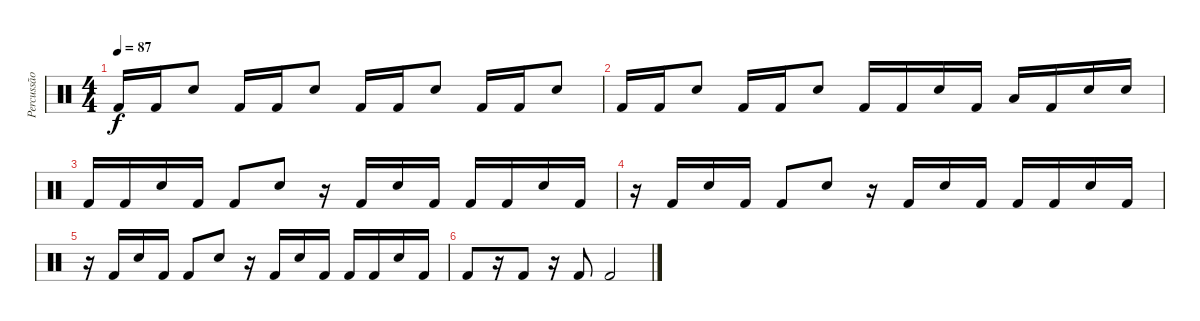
\track ("Percussão" "Percussão") {instrument percussion}
\staff {score}
\articulation defaults
\ts (4 4)
\tempo 87
\clef neutral
\ks c "Kick (hit) 2".16{dy f} "Kick (hit) 2".16 "Electric Snare (hit)".8 "Kick (hit) 2".16 "Kick (hit) 2".16 "Electric Snare (hit)".8 "Kick (hit) 2".16 "Kick (hit) 2".16 "Electric Snare (hit)".8 "Kick (hit) 2".16 "Kick (hit) 2".16 "Electric Snare (hit)".8
|
"Kick (hit) 2".16 "Kick (hit) 2".16 "Electric Snare (hit)".8 "Kick (hit) 2".16 "Kick (hit) 2".16 "Electric Snare (hit)".8 "Kick (hit) 2".16 "Kick (hit) 2".16 "Electric Snare (hit)".16 "Kick (hit) 2".16 "Low Tom (hit)".16 "Kick (hit) 2".16 "Electric Snare (hit)".16 "Electric Snare (hit)".16 |
"Kick (hit) 2".16 "Kick (hit) 2".16 "Electric Snare (hit)".16 "Kick (hit) 2".16 "Kick (hit) 2".8 "Electric Snare (hit)".8 r.16 "Kick (hit) 2".16 "Electric Snare (hit)".16 "Kick (hit) 2".16 "Kick (hit) 2".16 "Kick (hit) 2".16 "Electric Snare (hit)".16 "Kick (hit) 2".16 |
r.16 "Kick (hit) 2".16 "Electric Snare (hit)".16 "Kick (hit) 2".16 "Kick (hit) 2".8 "Electric Snare (hit)".8 r.16 "Kick (hit) 2".16 "Electric Snare (hit)".16 "Kick (hit) 2".16 "Kick (hit) 2".16 "Kick (hit) 2".16 "Electric Snare (hit)".16 "Kick (hit) 2".16 |
r.16 "Kick (hit) 2".16 "Electric Snare (hit)".16 "Kick (hit) 2".16 "Kick (hit) 2".8 "Electric Snare (hit)".8 r.16 "Kick (hit) 2".16 "Electric Snare (hit)".16 "Kick (hit) 2".16 "Kick (hit) 2".16 "Kick (hit) 2".16 "Electric Snare (hit)".16 "Kick (hit) 2".16 |
"Kick (hit) 2".8 r.16 "Kick (hit) 2".8 r.16 "Kick (hit) 2".8 "Kick (hit) 2".2
